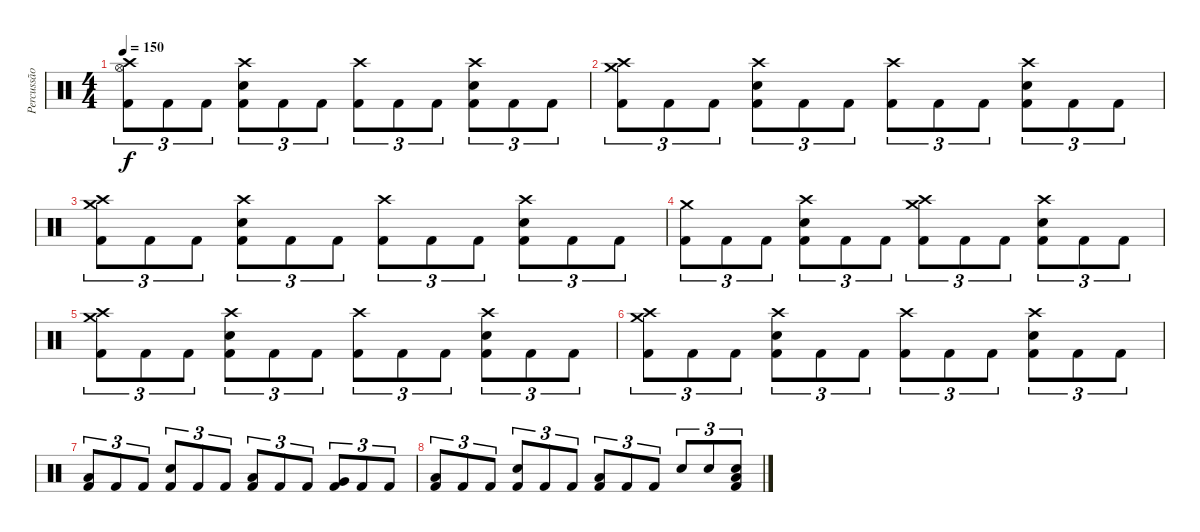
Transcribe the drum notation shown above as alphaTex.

\track ("Percussão" "Percussão") {instrument percussion}
\staff {score}
\articulation defaults
\ts (4 4)
\tempo 150
\clef neutral
\ks c
("Crash high (hit)" "Hi-Hat (open)" "Kick (hit) 2").8{tu (3 2) dy f} "Kick (hit) 2".8{tu (3 2)} "Kick (hit) 2".8{tu (3 2)} ("Crash high (hit)" "Snare (hit) 2" "Kick (hit) 2").8{tu (3 2)} "Kick (hit) 2".8{tu (3 2)} "Kick (hit) 2".8{tu (3 2)} ("Crash high (hit)" "Kick (hit) 2").8{tu (3 2)} "Kick (hit) 2".8{tu (3 2)} "Kick (hit) 2".8{tu (3 2)} ("Crash high (hit)" "Snare (hit) 2" "Kick (hit) 2").8{tu (3 2)} "Kick (hit) 2".8{tu (3 2)} "Kick (hit) 2".8{tu (3 2)} |
("Crash high (hit)" "Crash medium (hit)" "Kick (hit) 2").8{tu (3 2)} "Kick (hit) 2".8{tu (3 2)} "Kick (hit) 2".8{tu (3 2)} ("Crash high (hit)" "Snare (hit) 2" "Kick (hit) 2").8{tu (3 2)} "Kick (hit) 2".8{tu (3 2)} "Kick (hit) 2".8{tu (3 2)} ("Crash high (hit)" "Kick (hit) 2").8{tu (3 2)} "Kick (hit) 2".8{tu (3 2)} "Kick (hit) 2".8{tu (3 2)} ("Crash high (hit)" "Snare (hit) 2" "Kick (hit) 2").8{tu (3 2)} "Kick (hit) 2".8{tu (3 2)} "Kick (hit) 2".8{tu (3 2)} |
("Crash high (hit)" "Crash medium (hit)" "Kick (hit) 2").8{tu (3 2)} "Kick (hit) 2".8{tu (3 2)} "Kick (hit) 2".8{tu (3 2)} ("Crash high (hit)" "Snare (hit) 2" "Kick (hit) 2").8{tu (3 2)} "Kick (hit) 2".8{tu (3 2)} "Kick (hit) 2".8{tu (3 2)} ("Crash high (hit)" "Kick (hit) 2").8{tu (3 2)} "Kick (hit) 2".8{tu (3 2)} "Kick (hit) 2".8{tu (3 2)} ("Crash high (hit)" "Snare (hit) 2" "Kick (hit) 2").8{tu (3 2)} "Kick (hit) 2".8{tu (3 2)} "Kick (hit) 2".8{tu (3 2)} |
("Crash medium (hit)" "Kick (hit) 2").8{tu (3 2)} "Kick (hit) 2".8{tu (3 2)} "Kick (hit) 2".8{tu (3 2)} ("Crash high (hit)" "Snare (hit) 2" "Kick (hit) 2").8{tu (3 2)} "Kick (hit) 2".8{tu (3 2)} "Kick (hit) 2".8{tu (3 2)} ("Crash high (hit)" "Crash medium (hit)" "Kick (hit) 2").8{tu (3 2)} "Kick (hit) 2".8{tu (3 2)} "Kick (hit) 2".8{tu (3 2)} ("Crash high (hit)" "Snare (hit) 2" "Kick (hit) 2").8{tu (3 2)} "Kick (hit) 2".8{tu (3 2)} "Kick (hit) 2".8{tu (3 2)} |
("Crash high (hit)" "Crash medium (hit)" "Kick (hit) 2").8{tu (3 2)} "Kick (hit) 2".8{tu (3 2)} "Kick (hit) 2".8{tu (3 2)} ("Crash high (hit)" "Snare (hit) 2" "Kick (hit) 2").8{tu (3 2)} "Kick (hit) 2".8{tu (3 2)} "Kick (hit) 2".8{tu (3 2)} ("Crash high (hit)" "Kick (hit) 2").8{tu (3 2)} "Kick (hit) 2".8{tu (3 2)} "Kick (hit) 2".8{tu (3 2)} ("Crash high (hit)" "Snare (hit) 2" "Kick (hit) 2").8{tu (3 2)} "Kick (hit) 2".8{tu (3 2)} "Kick (hit) 2".8{tu (3 2)} |
("Crash high (hit)" "Crash medium (hit)" "Kick (hit) 2").8{tu (3 2)} "Kick (hit) 2".8{tu (3 2)} "Kick (hit) 2".8{tu (3 2)} ("Crash high (hit)" "Snare (hit) 2" "Kick (hit) 2").8{tu (3 2)} "Kick (hit) 2".8{tu (3 2)} "Kick (hit) 2".8{tu (3 2)} ("Crash high (hit)" "Kick (hit) 2").8{tu (3 2)} "Kick (hit) 2".8{tu (3 2)} "Kick (hit) 2".8{tu (3 2)} ("Crash high (hit)" "Snare (hit) 2" "Kick (hit) 2").8{tu (3 2)} "Kick (hit) 2".8{tu (3 2)} "Kick (hit) 2".8{tu (3 2)} |
("Low Floor Tom (hit)" "Kick (hit) 2").8{tu (3 2)} "Kick (hit) 2".8{tu (3 2)} "Kick (hit) 2".8{tu (3 2)} ("Snare (hit) 2" "Kick (hit) 2").8{tu (3 2)} "Kick (hit) 2".8{tu (3 2)} "Kick (hit) 2".8{tu (3 2)} ("Low Floor Tom (hit)" "Kick (hit) 2").8{tu (3 2)} "Kick (hit) 2".8{tu (3 2)} "Kick (hit) 2".8{tu (3 2)} ("Very Low Tom (hit)" "Kick (hit) 2").8{tu (3 2)} "Kick (hit) 2".8{tu (3 2)} "Kick (hit) 2".8{tu (3 2)} |
("Low Floor Tom (hit)" "Kick (hit) 2").8{tu (3 2)} "Kick (hit) 2".8{tu (3 2)} "Kick (hit) 2".8{tu (3 2)} ("Snare (hit) 2" "Kick (hit) 2").8{tu (3 2)} "Kick (hit) 2".8{tu (3 2)} "Kick (hit) 2".8{tu (3 2)} ("Low Floor Tom (hit)" "Kick (hit) 2").8{tu (3 2)} "Kick (hit) 2".8{tu (3 2)} "Kick (hit) 2".8{tu (3 2)} "Snare (hit) 2".8{tu (3 2)} "Snare (hit) 2".8{tu (3 2)} ("Kick (hit) 2" "Snare (hit) 2" "Low Floor Tom (hit)").8{tu (3 2)}
